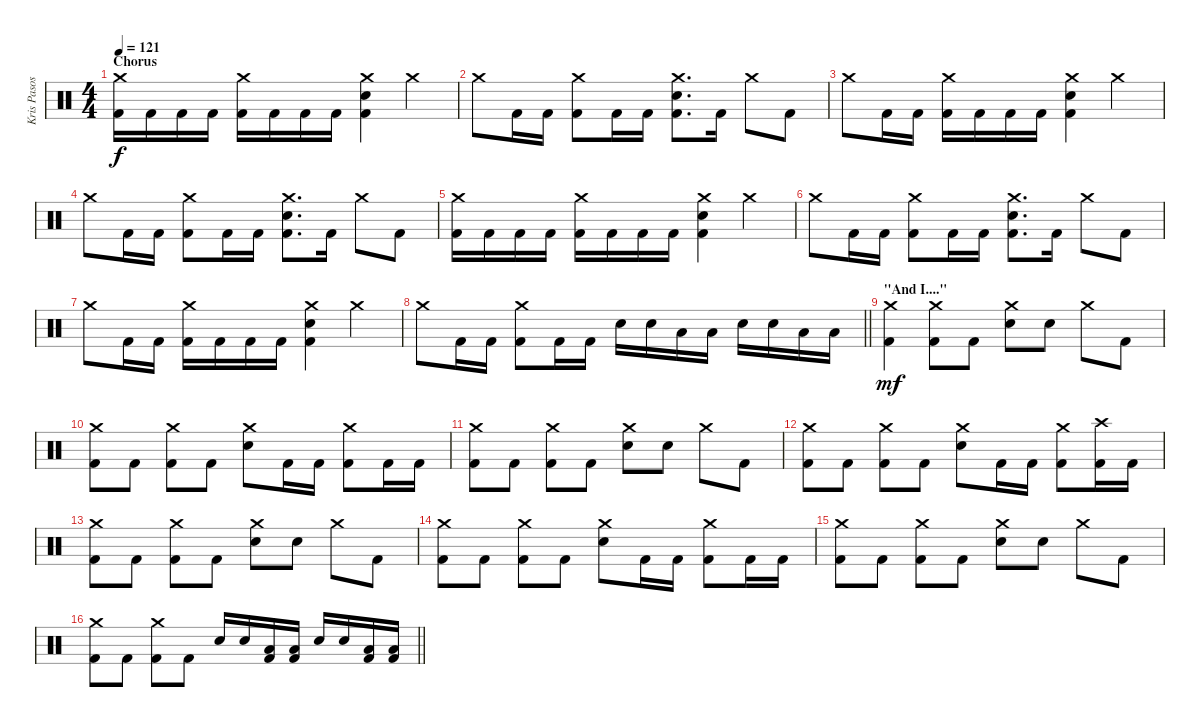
\track ("Kris Pasos" "Kris Pasos") {instrument percussion}
\staff {score}
\articulation defaults
\ts (4 4)
\section ("" "Chorus")
\tempo 121
\clef neutral
\ks c
("Crash medium (hit)" "Kick (hit) 2").16{dy f} "Kick (hit) 2".16 "Kick (hit) 2".16 "Kick (hit) 2".16 ("Crash medium (hit)" "Kick (hit) 2").16 "Kick (hit) 2".16 "Kick (hit) 2".16 "Kick (hit) 2".16 ("Crash medium (hit)" "Snare (hit) 2" "Kick (hit) 2").4 "Crash medium (hit)".4 |
"Crash medium (hit)".8 "Kick (hit) 2".16 "Kick (hit) 2".16 ("Crash medium (hit)" "Kick (hit) 2").8 "Kick (hit) 2".16 "Kick (hit) 2".16 ("Crash medium (hit)" "Snare (hit) 2" "Kick (hit) 2").8{d} "Kick (hit) 2".16 "Crash medium (hit)".8 "Kick (hit) 2".8 |
"Crash medium (hit)".8 "Kick (hit) 2".16 "Kick (hit) 2".16 ("Crash medium (hit)" "Kick (hit) 2").16 "Kick (hit) 2".16 "Kick (hit) 2".16 "Kick (hit) 2".16 ("Crash medium (hit)" "Snare (hit) 2" "Kick (hit) 2").4 "Crash medium (hit)".4 |
"Crash medium (hit)".8 "Kick (hit) 2".16 "Kick (hit) 2".16 ("Crash medium (hit)" "Kick (hit) 2").8 "Kick (hit) 2".16 "Kick (hit) 2".16 ("Crash medium (hit)" "Snare (hit) 2" "Kick (hit) 2").8{d} "Kick (hit) 2".16 "Crash medium (hit)".8 "Kick (hit) 2".8 |
("Crash medium (hit)" "Kick (hit) 2").16 "Kick (hit) 2".16 "Kick (hit) 2".16 "Kick (hit) 2".16 ("Crash medium (hit)" "Kick (hit) 2").16 "Kick (hit) 2".16 "Kick (hit) 2".16 "Kick (hit) 2".16 ("Crash medium (hit)" "Snare (hit) 2" "Kick (hit) 2").4 "Crash medium (hit)".4 |
"Crash medium (hit)".8 "Kick (hit) 2".16 "Kick (hit) 2".16 ("Crash medium (hit)" "Kick (hit) 2").8 "Kick (hit) 2".16 "Kick (hit) 2".16 ("Crash medium (hit)" "Snare (hit) 2" "Kick (hit) 2").8{d} "Kick (hit) 2".16 "Crash medium (hit)".8 "Kick (hit) 2".8 |
"Crash medium (hit)".8 "Kick (hit) 2".16 "Kick (hit) 2".16 ("Crash medium (hit)" "Kick (hit) 2").16 "Kick (hit) 2".16 "Kick (hit) 2".16 "Kick (hit) 2".16 ("Crash medium (hit)" "Snare (hit) 2" "Kick (hit) 2").4 "Crash medium (hit)".4 |
\barLineRight lightlight "Crash medium (hit)".8 "Kick (hit) 2".16 "Kick (hit) 2".16
("Crash medium (hit)" "Kick (hit) 2").8 "Kick (hit) 2".16 "Kick (hit) 2".16 "Snare (hit) 2".16 "Snare (hit) 2".16 "Low Floor Tom (hit)".16 "Low Floor Tom (hit)".16 "Snare (hit) 2".16 "Snare (hit) 2".16 "Low Floor Tom (hit)".16 "Low Floor Tom (hit)".16 |
\section ("" "\"And I....\"")
("Crash medium (hit)" "Kick (hit) 2").4{dy mf} ("Crash medium (hit)" "Kick (hit) 2").8 "Kick (hit) 2".8 ("Crash medium (hit)" "Snare (hit) 2").8 "Snare (hit) 2".8 "Crash medium (hit)".8 "Kick (hit) 2".8 |
("Crash medium (hit)" "Kick (hit) 2").8 "Kick (hit) 2".8 ("Crash medium (hit)" "Kick (hit) 2").8 "Kick (hit) 2".8 ("Crash medium (hit)" "Snare (hit) 2").8 "Kick (hit) 2".16 "Kick (hit) 2".16 ("Crash medium (hit)" "Kick (hit) 2").8 "Kick (hit) 2".16 "Kick (hit) 2".16 |
("Crash medium (hit)" "Kick (hit) 2").8 "Kick (hit) 2".8 ("Crash medium (hit)" "Kick (hit) 2").8 "Kick (hit) 2".8 ("Crash medium (hit)" "Snare (hit) 2").8 "Snare (hit) 2".8 "Crash medium (hit)".8 "Kick (hit) 2".8 |
("Crash medium (hit)" "Kick (hit) 2").8 "Kick (hit) 2".8 ("Crash medium (hit)" "Kick (hit) 2").8 "Kick (hit) 2".8 ("Crash medium (hit)" "Snare (hit) 2").8 "Kick (hit) 2".16 "Kick (hit) 2".16 ("Crash medium (hit)" "Kick (hit) 2").8 ("Crash high (hit)" "Kick (hit) 2").16 "Kick (hit) 2".16 |
("Crash medium (hit)" "Kick (hit) 2").8 "Kick (hit) 2".8 ("Crash medium (hit)" "Kick (hit) 2").8 "Kick (hit) 2".8 ("Crash medium (hit)" "Snare (hit) 2").8 "Snare (hit) 2".8 "Crash medium (hit)".8 "Kick (hit) 2".8 |
("Crash medium (hit)" "Kick (hit) 2").8 "Kick (hit) 2".8 ("Crash medium (hit)" "Kick (hit) 2").8 "Kick (hit) 2".8 ("Crash medium (hit)" "Snare (hit) 2").8 "Kick (hit) 2".16 "Kick (hit) 2".16 ("Crash medium (hit)" "Kick (hit) 2").8 "Kick (hit) 2".16 "Kick (hit) 2".16 |
("Crash medium (hit)" "Kick (hit) 2").8 "Kick (hit) 2".8 ("Crash medium (hit)" "Kick (hit) 2").8 "Kick (hit) 2".8 ("Crash medium (hit)" "Snare (hit) 2").8 "Snare (hit) 2".8 "Crash medium (hit)".8 "Kick (hit) 2".8 |
\barLineRight lightlight
("Crash medium (hit)" "Kick (hit) 2").8 "Kick (hit) 2".8 ("Crash medium (hit)" "Kick (hit) 2").8 "Kick (hit) 2".8 "Snare (hit) 2".16 "Snare (hit) 2".16 ("Low Floor Tom (hit)" "Kick (hit) 2").16 ("Low Floor Tom (hit)" "Kick (hit) 2").16 "Snare (hit) 2".16 "Snare (hit) 2".16 ("Low Floor Tom (hit)" "Kick (hit) 2").16 ("Low Floor Tom (hit)" "Kick (hit) 2").16
